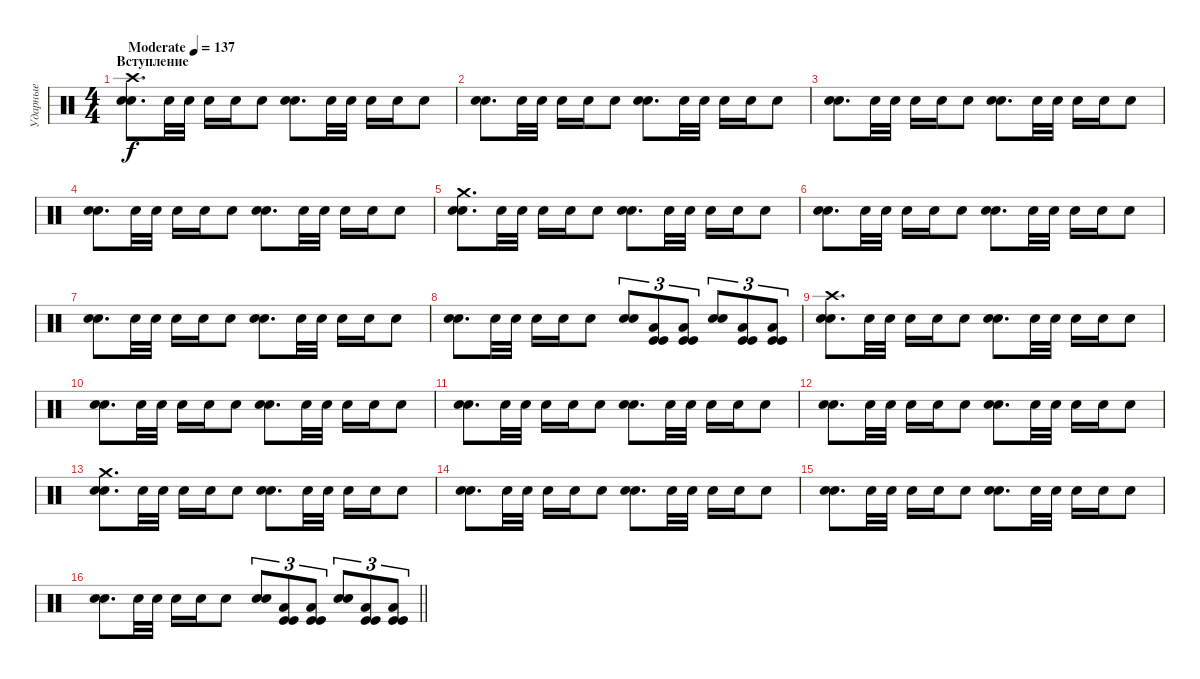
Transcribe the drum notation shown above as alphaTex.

\track ("Ударные" "Ударные") {instrument percussion}
\staff {score}
\articulation defaults
\ts (4 4)
\section ("" "Вступление")
\tempo (137 "Moderate")
\clef neutral
\ks c
("Crash high (hit)" "Snare (hit) 2" "Electric Snare (hit)").8{d dy f} "Snare (hit) 2".32 "Snare (hit) 2".32 "Snare (hit) 2".16 "Snare (hit) 2".16 "Snare (hit) 2".8 ("Snare (hit) 2" "Electric Snare (hit)").8{d} "Snare (hit) 2".32 "Snare (hit) 2".32 "Snare (hit) 2".16 "Snare (hit) 2".16 "Snare (hit) 2".8 |
("Snare (hit) 2" "Electric Snare (hit)").8{d} "Snare (hit) 2".32 "Snare (hit) 2".32 "Snare (hit) 2".16 "Snare (hit) 2".16 "Snare (hit) 2".8 ("Snare (hit) 2" "Electric Snare (hit)").8{d} "Snare (hit) 2".32 "Snare (hit) 2".32 "Snare (hit) 2".16 "Snare (hit) 2".16 "Snare (hit) 2".8 |
("Snare (hit) 2" "Electric Snare (hit)").8{d} "Snare (hit) 2".32 "Snare (hit) 2".32 "Snare (hit) 2".16 "Snare (hit) 2".16 "Snare (hit) 2".8 ("Snare (hit) 2" "Electric Snare (hit)").8{d} "Snare (hit) 2".32 "Snare (hit) 2".32 "Snare (hit) 2".16 "Snare (hit) 2".16 "Snare (hit) 2".8 |
("Snare (hit) 2" "Electric Snare (hit)").8{d} "Snare (hit) 2".32 "Snare (hit) 2".32 "Snare (hit) 2".16 "Snare (hit) 2".16 "Snare (hit) 2".8 ("Snare (hit) 2" "Electric Snare (hit)").8{d} "Snare (hit) 2".32 "Snare (hit) 2".32 "Snare (hit) 2".16 "Snare (hit) 2".16 "Snare (hit) 2".8 |
("Crash medium (hit)" "Snare (hit) 2" "Electric Snare (hit)").8{d} "Snare (hit) 2".32 "Snare (hit) 2".32 "Snare (hit) 2".16 "Snare (hit) 2".16 "Snare (hit) 2".8 ("Snare (hit) 2" "Electric Snare (hit)").8{d} "Snare (hit) 2".32 "Snare (hit) 2".32 "Snare (hit) 2".16 "Snare (hit) 2".16 "Snare (hit) 2".8 |
("Snare (hit) 2" "Electric Snare (hit)").8{d} "Snare (hit) 2".32 "Snare (hit) 2".32 "Snare (hit) 2".16 "Snare (hit) 2".16 "Snare (hit) 2".8 ("Snare (hit) 2" "Electric Snare (hit)").8{d} "Snare (hit) 2".32 "Snare (hit) 2".32 "Snare (hit) 2".16 "Snare (hit) 2".16 "Snare (hit) 2".8 |
("Snare (hit) 2" "Electric Snare (hit)").8{d} "Snare (hit) 2".32 "Snare (hit) 2".32 "Snare (hit) 2".16 "Snare (hit) 2".16 "Snare (hit) 2".8 ("Snare (hit) 2" "Electric Snare (hit)").8{d} "Snare (hit) 2".32 "Snare (hit) 2".32 "Snare (hit) 2".16 "Snare (hit) 2".16 "Snare (hit) 2".8 |
("Snare (hit) 2" "Electric Snare (hit)").8{d} "Snare (hit) 2".32 "Snare (hit) 2".32 "Snare (hit) 2".16 "Snare (hit) 2".16 "Snare (hit) 2".8 ("Snare (hit) 2" "Electric Snare (hit)").8{tu (3 2)} ("Kick (hit)" "Kick (hit)" "Low Tom (hit)").8{tu (3 2)} ("Kick (hit)" "Kick (hit)" "Low Tom (hit)").8{tu (3 2)} ("Snare (hit) 2" "Electric Snare (hit)").8{tu (3 2)} ("Kick (hit)" "Kick (hit)" "Low Tom (hit)").8{tu (3 2)} ("Kick (hit)" "Kick (hit)" "Low Tom (hit)").8{tu (3 2)} |
("Crash high (hit)" "Snare (hit) 2" "Electric Snare (hit)").8{d} "Snare (hit) 2".32 "Snare (hit) 2".32 "Snare (hit) 2".16 "Snare (hit) 2".16 "Snare (hit) 2".8 ("Snare (hit) 2" "Electric Snare (hit)").8{d} "Snare (hit) 2".32 "Snare (hit) 2".32 "Snare (hit) 2".16 "Snare (hit) 2".16 "Snare (hit) 2".8 |
("Snare (hit) 2" "Electric Snare (hit)").8{d} "Snare (hit) 2".32 "Snare (hit) 2".32 "Snare (hit) 2".16 "Snare (hit) 2".16 "Snare (hit) 2".8 ("Snare (hit) 2" "Electric Snare (hit)").8{d} "Snare (hit) 2".32 "Snare (hit) 2".32 "Snare (hit) 2".16 "Snare (hit) 2".16 "Snare (hit) 2".8 |
("Snare (hit) 2" "Electric Snare (hit)").8{d} "Snare (hit) 2".32 "Snare (hit) 2".32 "Snare (hit) 2".16 "Snare (hit) 2".16 "Snare (hit) 2".8 ("Snare (hit) 2" "Electric Snare (hit)").8{d} "Snare (hit) 2".32 "Snare (hit) 2".32 "Snare (hit) 2".16 "Snare (hit) 2".16 "Snare (hit) 2".8 |
("Snare (hit) 2" "Electric Snare (hit)").8{d} "Snare (hit) 2".32 "Snare (hit) 2".32 "Snare (hit) 2".16 "Snare (hit) 2".16 "Snare (hit) 2".8 ("Snare (hit) 2" "Electric Snare (hit)").8{d} "Snare (hit) 2".32 "Snare (hit) 2".32 "Snare (hit) 2".16 "Snare (hit) 2".16 "Snare (hit) 2".8 |
("Crash medium (hit)" "Snare (hit) 2" "Electric Snare (hit)").8{d} "Snare (hit) 2".32 "Snare (hit) 2".32 "Snare (hit) 2".16 "Snare (hit) 2".16 "Snare (hit) 2".8 ("Snare (hit) 2" "Electric Snare (hit)").8{d} "Snare (hit) 2".32 "Snare (hit) 2".32 "Snare (hit) 2".16 "Snare (hit) 2".16 "Snare (hit) 2".8 |
("Snare (hit) 2" "Electric Snare (hit)").8{d} "Snare (hit) 2".32 "Snare (hit) 2".32 "Snare (hit) 2".16 "Snare (hit) 2".16 "Snare (hit) 2".8 ("Snare (hit) 2" "Electric Snare (hit)").8{d} "Snare (hit) 2".32 "Snare (hit) 2".32 "Snare (hit) 2".16 "Snare (hit) 2".16 "Snare (hit) 2".8 |
("Snare (hit) 2" "Electric Snare (hit)").8{d} "Snare (hit) 2".32 "Snare (hit) 2".32 "Snare (hit) 2".16 "Snare (hit) 2".16 "Snare (hit) 2".8 ("Snare (hit) 2" "Electric Snare (hit)").8{d} "Snare (hit) 2".32 "Snare (hit) 2".32 "Snare (hit) 2".16 "Snare (hit) 2".16 "Snare (hit) 2".8 |
\barLineRight lightlight
("Snare (hit) 2" "Electric Snare (hit)").8{d} "Snare (hit) 2".32 "Snare (hit) 2".32 "Snare (hit) 2".16 "Snare (hit) 2".16 "Snare (hit) 2".8 ("Snare (hit) 2" "Electric Snare (hit)").8{tu (3 2)} ("Kick (hit)" "Kick (hit)" "Low Tom (hit)").8{tu (3 2)} ("Kick (hit)" "Kick (hit)" "Low Tom (hit)").8{tu (3 2)} ("Snare (hit) 2" "Electric Snare (hit)").8{tu (3 2)} ("Kick (hit)" "Kick (hit)" "Low Tom (hit)").8{tu (3 2)} ("Kick (hit)" "Kick (hit)" "Low Tom (hit)").8{tu (3 2)}
